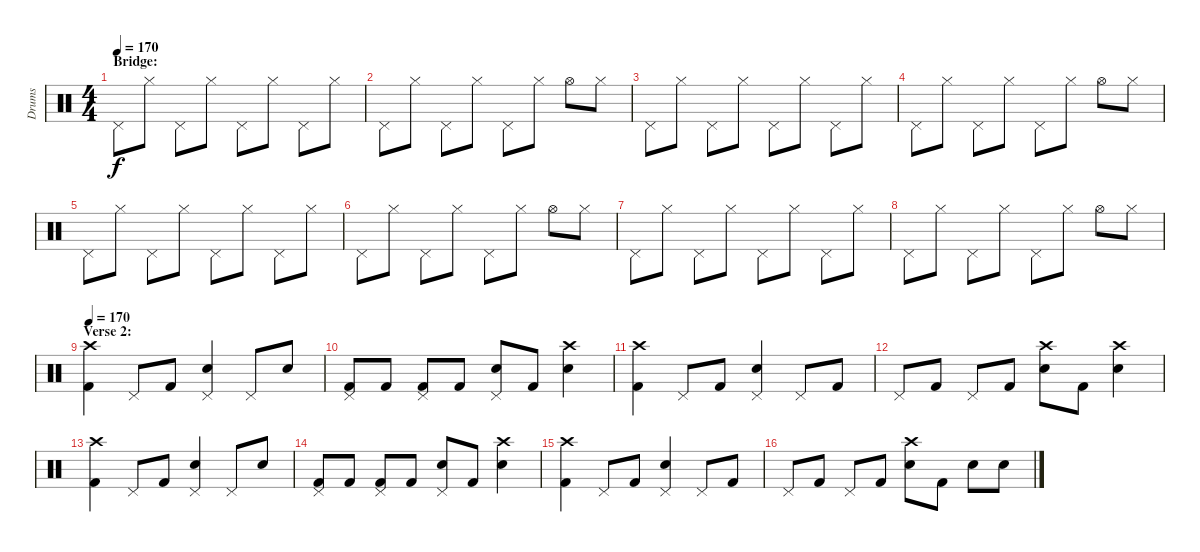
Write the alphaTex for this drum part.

\track ("Drums" "Drums") {instrument percussion}
\staff {score}
\articulation defaults
\ts (4 4)
\section ("" "Bridge:")
\tempo 170
\clef neutral
\ks c "Pedal Hi-Hat (hit)".8{dy f} "Hi-Hat (closed)".8 "Pedal Hi-Hat (hit)".8 "Hi-Hat (closed)".8 "Pedal Hi-Hat (hit)".8 "Hi-Hat (closed)".8 "Pedal Hi-Hat (hit)".8 "Hi-Hat (closed)".8
|
"Pedal Hi-Hat (hit)".8 "Hi-Hat (closed)".8 "Pedal Hi-Hat (hit)".8 "Hi-Hat (closed)".8 "Pedal Hi-Hat (hit)".8 "Hi-Hat (closed)".8 "Hi-Hat (open)".8 "Hi-Hat (closed)".8 |
"Pedal Hi-Hat (hit)".8 "Hi-Hat (closed)".8 "Pedal Hi-Hat (hit)".8 "Hi-Hat (closed)".8 "Pedal Hi-Hat (hit)".8 "Hi-Hat (closed)".8 "Pedal Hi-Hat (hit)".8 "Hi-Hat (closed)".8 |
"Pedal Hi-Hat (hit)".8 "Hi-Hat (closed)".8 "Pedal Hi-Hat (hit)".8 "Hi-Hat (closed)".8 "Pedal Hi-Hat (hit)".8 "Hi-Hat (closed)".8 "Hi-Hat (open)".8 "Hi-Hat (closed)".8 |
"Pedal Hi-Hat (hit)".8 "Hi-Hat (closed)".8 "Pedal Hi-Hat (hit)".8 "Hi-Hat (closed)".8 "Pedal Hi-Hat (hit)".8 "Hi-Hat (closed)".8 "Pedal Hi-Hat (hit)".8 "Hi-Hat (closed)".8 |
"Pedal Hi-Hat (hit)".8 "Hi-Hat (closed)".8 "Pedal Hi-Hat (hit)".8 "Hi-Hat (closed)".8 "Pedal Hi-Hat (hit)".8 "Hi-Hat (closed)".8 "Hi-Hat (open)".8 "Hi-Hat (closed)".8 |
"Pedal Hi-Hat (hit)".8 "Hi-Hat (closed)".8 "Pedal Hi-Hat (hit)".8 "Hi-Hat (closed)".8 "Pedal Hi-Hat (hit)".8 "Hi-Hat (closed)".8 "Pedal Hi-Hat (hit)".8 "Hi-Hat (closed)".8 |
"Pedal Hi-Hat (hit)".8 "Hi-Hat (closed)".8 "Pedal Hi-Hat (hit)".8 "Hi-Hat (closed)".8 "Pedal Hi-Hat (hit)".8 "Hi-Hat (closed)".8 "Hi-Hat (open)".8 "Hi-Hat (closed)".8 |
\section ("" "Verse 2:")
\tempo 170
("Crash high (hit)" "Kick (hit) 2").4 "Pedal Hi-Hat (hit)".8 "Kick (hit) 2".8 ("Pedal Hi-Hat (hit)" "Snare (hit) 2").4 "Pedal Hi-Hat (hit)".8 "Snare (hit) 2".8 |
("Pedal Hi-Hat (hit)" "Kick (hit) 2").8 "Kick (hit) 2".8 ("Pedal Hi-Hat (hit)" "Kick (hit) 2").8 "Kick (hit) 2".8 ("Pedal Hi-Hat (hit)" "Snare (hit) 2").8 "Kick (hit) 2".8 ("Crash high (hit)" "Snare (hit) 2").4 |
("Crash high (hit)" "Kick (hit) 2").4 "Pedal Hi-Hat (hit)".8 "Kick (hit) 2".8 ("Pedal Hi-Hat (hit)" "Snare (hit) 2").4 "Pedal Hi-Hat (hit)".8 "Kick (hit) 2".8 |
"Pedal Hi-Hat (hit)".8 "Kick (hit) 2".8 "Pedal Hi-Hat (hit)".8 "Kick (hit) 2".8 ("Crash high (hit)" "Snare (hit) 2").8 "Kick (hit) 2".8 ("Crash high (hit)" "Snare (hit) 2").4 |
("Crash high (hit)" "Kick (hit) 2").4 "Pedal Hi-Hat (hit)".8 "Kick (hit) 2".8 ("Pedal Hi-Hat (hit)" "Snare (hit) 2").4 "Pedal Hi-Hat (hit)".8 "Snare (hit) 2".8 |
("Pedal Hi-Hat (hit)" "Kick (hit) 2").8 "Kick (hit) 2".8 ("Pedal Hi-Hat (hit)" "Kick (hit) 2").8 "Kick (hit) 2".8 ("Pedal Hi-Hat (hit)" "Snare (hit) 2").8 "Kick (hit) 2".8 ("Crash high (hit)" "Snare (hit) 2").4 |
("Crash high (hit)" "Kick (hit) 2").4 "Pedal Hi-Hat (hit)".8 "Kick (hit) 2".8 ("Pedal Hi-Hat (hit)" "Snare (hit) 2").4 "Pedal Hi-Hat (hit)".8 "Kick (hit) 2".8 |
"Pedal Hi-Hat (hit)".8 "Kick (hit) 2".8 "Pedal Hi-Hat (hit)".8 "Kick (hit) 2".8 ("Crash high (hit)" "Snare (hit) 2").8 "Kick (hit) 2".8 "Snare (hit) 2".8 "Snare (hit) 2".8
